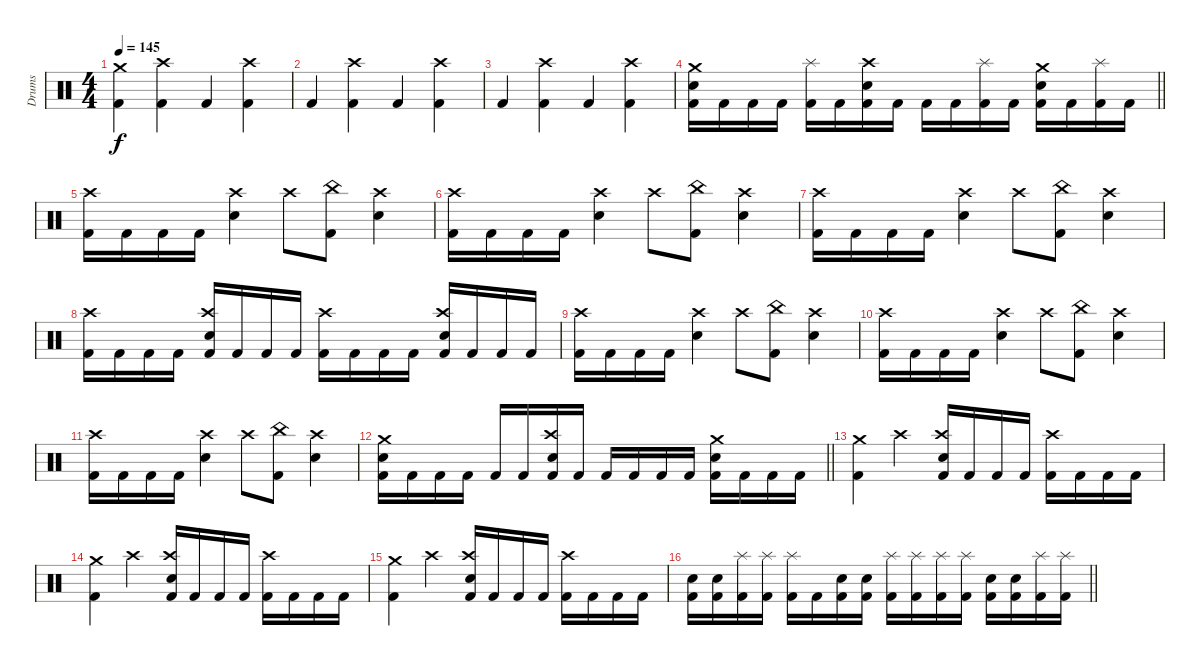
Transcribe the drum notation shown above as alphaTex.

\track ("Drums" "Drums") {instrument percussion}
\staff {score}
\articulation defaults
\ts (4 4)
\tempo 145
\clef neutral
\ks c
("Crash medium (hit)" "Kick (hit) 2").4{dy f} ("Crash high (hit)" "Kick (hit) 2").4 "Kick (hit) 2".4 ("Crash high (hit)" "Kick (hit) 2").4 |
"Kick (hit) 2".4 ("Crash high (hit)" "Kick (hit) 2").4 "Kick (hit) 2".4 ("Crash high (hit)" "Kick (hit) 2").4 |
"Kick (hit) 2".4 ("Crash high (hit)" "Kick (hit) 2").4 "Kick (hit) 2".4 ("Crash high (hit)" "Kick (hit) 2").4 |
\barLineRight lightlight
("Crash medium (hit)" "Electric Snare (hit)" "Kick (hit) 2").16 "Kick (hit) 2".16 "Kick (hit) 2".16 "Kick (hit) 2".16 ("Splash (hit)" "Kick (hit) 2").16 "Kick (hit) 2".16 ("Crash high (hit)" "Electric Snare (hit)" "Kick (hit) 2").16 "Kick (hit) 2".16 "Kick (hit) 2".16 "Kick (hit) 2".16 ("Splash (hit)" "Kick (hit) 2").16 "Kick (hit) 2".16 ("Crash medium (hit)" "Electric Snare (hit)" "Kick (hit) 2").16 "Kick (hit) 2".16 ("Splash (hit)" "Kick (hit) 2").16 "Kick (hit) 2".16 |
\section ("" "")
("Crash high (hit)" "Kick (hit) 2").16 "Kick (hit) 2".16 "Kick (hit) 2".16 "Kick (hit) 2".16 ("Crash high (hit)" "Electric Snare (hit)").4 "Crash high (hit)".8 ("China (hit)" "Kick (hit) 2").8 ("Crash high (hit)" "Electric Snare (hit)").4 |
("Crash high (hit)" "Kick (hit) 2").16 "Kick (hit) 2".16 "Kick (hit) 2".16 "Kick (hit) 2".16 ("Crash high (hit)" "Electric Snare (hit)").4 "Crash high (hit)".8 ("China (hit)" "Kick (hit) 2").8 ("Crash high (hit)" "Electric Snare (hit)").4 |
("Crash high (hit)" "Kick (hit) 2").16 "Kick (hit) 2".16 "Kick (hit) 2".16 "Kick (hit) 2".16 ("Crash high (hit)" "Electric Snare (hit)").4 "Crash high (hit)".8 ("China (hit)" "Kick (hit) 2").8 ("Crash high (hit)" "Electric Snare (hit)").4 |
("Crash high (hit)" "Kick (hit) 2").16 "Kick (hit) 2".16 "Kick (hit) 2".16 "Kick (hit) 2".16 ("Crash high (hit)" "Electric Snare (hit)" "Kick (hit) 2").16 "Kick (hit) 2".16 "Kick (hit) 2".16 "Kick (hit) 2".16 ("Crash high (hit)" "Kick (hit) 2").16 "Kick (hit) 2".16 "Kick (hit) 2".16 "Kick (hit) 2".16 ("Crash high (hit)" "Electric Snare (hit)" "Kick (hit) 2").16 "Kick (hit) 2".16 "Kick (hit) 2".16 "Kick (hit) 2".16 |
("Crash high (hit)" "Kick (hit) 2").16 "Kick (hit) 2".16 "Kick (hit) 2".16 "Kick (hit) 2".16 ("Crash high (hit)" "Electric Snare (hit)").4 "Crash high (hit)".8 ("China (hit)" "Kick (hit) 2").8 ("Crash high (hit)" "Electric Snare (hit)").4 |
("Crash high (hit)" "Kick (hit) 2").16 "Kick (hit) 2".16 "Kick (hit) 2".16 "Kick (hit) 2".16 ("Crash high (hit)" "Electric Snare (hit)").4 "Crash high (hit)".8 ("China (hit)" "Kick (hit) 2").8 ("Crash high (hit)" "Electric Snare (hit)").4 |
("Crash high (hit)" "Kick (hit) 2").16 "Kick (hit) 2".16 "Kick (hit) 2".16 "Kick (hit) 2".16 ("Crash high (hit)" "Electric Snare (hit)").4 "Crash high (hit)".8 ("China (hit)" "Kick (hit) 2").8 ("Crash high (hit)" "Electric Snare (hit)").4 |
\barLineRight lightlight
("Crash medium (hit)" "Electric Snare (hit)" "Kick (hit) 2").16 "Kick (hit) 2".16 "Kick (hit) 2".16 "Kick (hit) 2".16 "Kick (hit) 2".16 "Kick (hit) 2".16 ("Crash high (hit)" "Electric Snare (hit)" "Kick (hit) 2").16 "Kick (hit) 2".16 "Kick (hit) 2".16 "Kick (hit) 2".16 "Kick (hit) 2".16 "Kick (hit) 2".16 ("Crash medium (hit)" "Electric Snare (hit)" "Kick (hit) 2").16 "Kick (hit) 2".16 "Kick (hit) 2".16 "Kick (hit) 2".16 |
\section ("" "")
("Crash medium (hit)" "Kick (hit) 2").4 "Crash high (hit)".4 ("Crash high (hit)" "Electric Snare (hit)" "Kick (hit) 2").16 "Kick (hit) 2".16 "Kick (hit) 2".16 "Kick (hit) 2".16 ("Crash high (hit)" "Kick (hit) 2").16 "Kick (hit) 2".16 "Kick (hit) 2".16 "Kick (hit) 2".16 |
("Crash medium (hit)" "Kick (hit) 2").4 "Crash high (hit)".4 ("Crash high (hit)" "Electric Snare (hit)" "Kick (hit) 2").16 "Kick (hit) 2".16 "Kick (hit) 2".16 "Kick (hit) 2".16 ("Crash high (hit)" "Kick (hit) 2").16 "Kick (hit) 2".16 "Kick (hit) 2".16 "Kick (hit) 2".16 |
("Crash medium (hit)" "Kick (hit) 2").4 "Crash high (hit)".4 ("Crash high (hit)" "Electric Snare (hit)" "Kick (hit) 2").16 "Kick (hit) 2".16 "Kick (hit) 2".16 "Kick (hit) 2".16 ("Crash high (hit)" "Kick (hit) 2").16 "Kick (hit) 2".16 "Kick (hit) 2".16 "Kick (hit) 2".16 |
\barLineRight lightlight
("Electric Snare (hit)" "Kick (hit) 2").16 ("Electric Snare (hit)" "Kick (hit) 2").16 ("Splash (hit)" "Kick (hit) 2").16 ("Splash (hit)" "Kick (hit) 2").16 ("Splash (hit)" "Kick (hit) 2").16 "Kick (hit) 2".16 ("Electric Snare (hit)" "Kick (hit) 2").16 ("Electric Snare (hit)" "Kick (hit) 2").16 ("Splash (hit)" "Kick (hit) 2").16 ("Splash (hit)" "Kick (hit) 2").16 ("Splash (hit)" "Kick (hit) 2").16 ("Splash (hit)" "Kick (hit) 2").16 ("Electric Snare (hit)" "Kick (hit) 2").16 ("Electric Snare (hit)" "Kick (hit) 2").16 ("Splash (hit)" "Kick (hit) 2").16 ("Splash (hit)" "Kick (hit) 2").16
